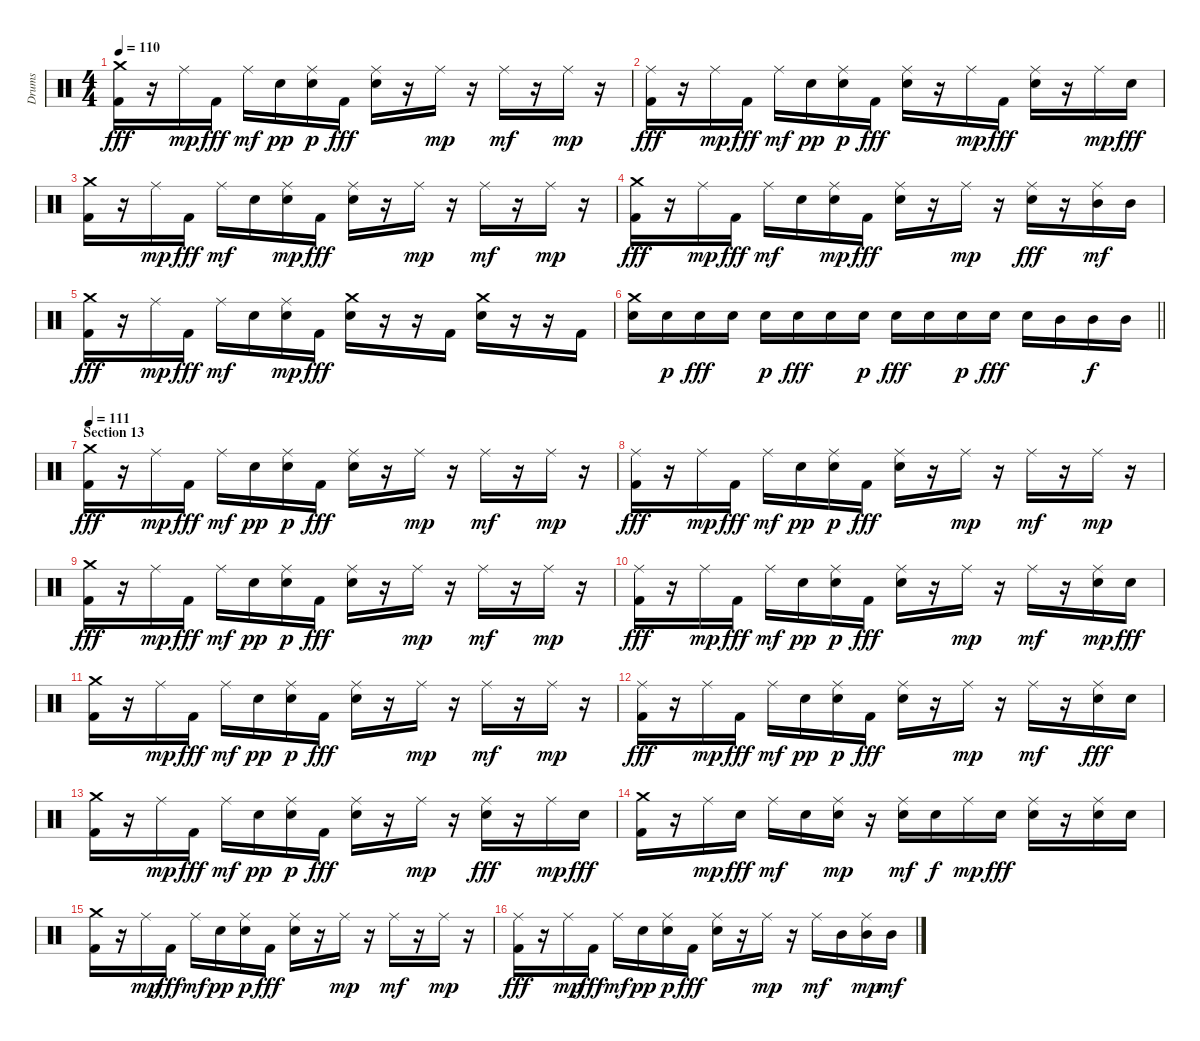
\track ("Drums" "Drums") {instrument percussion}
\staff {score}
\articulation defaults
\ts (4 4)
\tempo 110
\clef neutral
\ks c
("Crash medium (hit)" "Kick (hit) 2").16{dy fff} r.16 "Ride (middle)".16{dy mp} "Kick (hit) 2".16{dy fff} "Ride (middle)".16{dy mf} "Electric Snare (hit)".16{dy pp} ("Ride (middle)" "Electric Snare (hit)").16{dy p} "Kick (hit) 2".16{dy fff} ("Ride (middle)" "Electric Snare (hit)").16 r.16 "Ride (middle)".16{dy mp} r.16 "Ride (middle)".16{dy mf} r.16 "Ride (middle)".16{dy mp} r.16 |
("Ride (middle)" "Kick (hit) 2").16{dy fff} r.16 "Ride (middle)".16{dy mp} "Kick (hit) 2".16{dy fff} "Ride (middle)".16{dy mf} "Electric Snare (hit)".16{dy pp} ("Ride (middle)" "Electric Snare (hit)").16{dy p} "Kick (hit) 2".16{dy fff} ("Ride (middle)" "Electric Snare (hit)").16 r.16 "Ride (middle)".16{dy mp} "Kick (hit) 2".16{dy fff} ("Ride (middle)" "Electric Snare (hit)").16 r.16 "Ride (middle)".16{dy mp} "Electric Snare (hit)".16{dy fff} |
("Crash medium (hit)" "Kick (hit) 2").16 r.16 "Ride (middle)".16{dy mp} "Kick (hit) 2".16{dy fff} "Ride (middle)".16{dy mf} "Electric Snare (hit)".16 ("Ride (middle)" "Electric Snare (hit)").16{dy mp} "Kick (hit) 2".16{dy fff} ("Ride (middle)" "Electric Snare (hit)").16 r.16 "Ride (middle)".16{dy mp} r.16 "Ride (middle)".16{dy mf} r.16 "Ride (middle)".16{dy mp} r.16 |
("Crash medium (hit)" "Kick (hit) 2").16{dy fff} r.16 "Ride (middle)".16{dy mp} "Kick (hit) 2".16{dy fff} "Ride (middle)".16{dy mf} "Electric Snare (hit)".16 ("Ride (middle)" "Electric Snare (hit)").16{dy mp} "Kick (hit) 2".16{dy fff} ("Ride (middle)" "Electric Snare (hit)").16 r.16 "Ride (middle)".16{dy mp} r.16 ("Ride (middle)" "Electric Snare (hit)").16{dy fff} r.16 ("Ride (middle)" "Mid Tom (hit)").16{dy mf} "Mid Tom (hit)".16 |
("Crash medium (hit)" "Kick (hit) 2").16{dy fff} r.16 "Ride (middle)".16{dy mp} "Kick (hit) 2".16{dy fff} "Ride (middle)".16{dy mf} "Electric Snare (hit)".16 ("Ride (middle)" "Electric Snare (hit)").16{dy mp} "Kick (hit) 2".16{dy fff} ("Crash medium (hit)" "Electric Snare (hit)").16 r.16 r.16 "Kick (hit) 2".16 ("Crash medium (hit)" "Electric Snare (hit)").16 r.16 r.16 "Kick (hit) 2".16 |
\barLineRight lightlight
("Crash medium (hit)" "Electric Snare (hit)").16 "Electric Snare (hit)".16{dy p} "Electric Snare (hit)".16{dy fff} "Electric Snare (hit)".16 "Electric Snare (hit)".16{dy p} "Electric Snare (hit)".16{dy fff} "Electric Snare (hit)".16 "Electric Snare (hit)".16{dy p} "Electric Snare (hit)".16{dy fff} "Electric Snare (hit)".16 "Electric Snare (hit)".16{dy p} "Electric Snare (hit)".16{dy fff} "Electric Snare (hit)".16 "Mid Tom (hit)".16 "Mid Tom (hit)".16{dy f} "Mid Tom (hit)".16 |
\section ("" "Section 13")
\tempo 111
("Crash medium (hit)" "Kick (hit) 2").16{dy fff} r.16 "Ride (middle)".16{dy mp} "Kick (hit) 2".16{dy fff} "Ride (middle)".16{dy mf} "Electric Snare (hit)".16{dy pp} ("Ride (middle)" "Electric Snare (hit)").16{dy p} "Kick (hit) 2".16{dy fff} ("Ride (middle)" "Electric Snare (hit)").16 r.16 "Ride (middle)".16{dy mp} r.16 "Ride (middle)".16{dy mf} r.16 "Ride (middle)".16{dy mp} r.16 |
("Ride (middle)" "Kick (hit) 2").16{dy fff} r.16 "Ride (middle)".16{dy mp} "Kick (hit) 2".16{dy fff} "Ride (middle)".16{dy mf} "Electric Snare (hit)".16{dy pp} ("Ride (middle)" "Electric Snare (hit)").16{dy p} "Kick (hit) 2".16{dy fff} ("Ride (middle)" "Electric Snare (hit)").16 r.16 "Ride (middle)".16{dy mp} r.16 "Ride (middle)".16{dy mf} r.16 "Ride (middle)".16{dy mp} r.16 |
("Crash medium (hit)" "Kick (hit) 2").16{dy fff} r.16 "Ride (middle)".16{dy mp} "Kick (hit) 2".16{dy fff} "Ride (middle)".16{dy mf} "Electric Snare (hit)".16{dy pp} ("Ride (middle)" "Electric Snare (hit)").16{dy p} "Kick (hit) 2".16{dy fff} ("Ride (middle)" "Electric Snare (hit)").16 r.16 "Ride (middle)".16{dy mp} r.16 "Ride (middle)".16{dy mf} r.16 "Ride (middle)".16{dy mp} r.16 |
("Ride (middle)" "Kick (hit) 2").16{dy fff} r.16 "Ride (middle)".16{dy mp} "Kick (hit) 2".16{dy fff} "Ride (middle)".16{dy mf} "Electric Snare (hit)".16{dy pp} ("Ride (middle)" "Electric Snare (hit)").16{dy p} "Kick (hit) 2".16{dy fff} ("Ride (middle)" "Electric Snare (hit)").16 r.16 "Ride (middle)".16{dy mp} r.16 "Ride (middle)".16{dy mf} r.16 ("Ride (middle)" "Electric Snare (hit)").16{dy mp} "Electric Snare (hit)".16{dy fff} |
("Crash medium (hit)" "Kick (hit) 2").16 r.16 "Ride (middle)".16{dy mp} "Kick (hit) 2".16{dy fff} "Ride (middle)".16{dy mf} "Electric Snare (hit)".16{dy pp} ("Ride (middle)" "Electric Snare (hit)").16{dy p} "Kick (hit) 2".16{dy fff} ("Ride (middle)" "Electric Snare (hit)").16 r.16 "Ride (middle)".16{dy mp} r.16 "Ride (middle)".16{dy mf} r.16 "Ride (middle)".16{dy mp} r.16 |
("Ride (middle)" "Kick (hit) 2").16{dy fff} r.16 "Ride (middle)".16{dy mp} "Kick (hit) 2".16{dy fff} "Ride (middle)".16{dy mf} "Electric Snare (hit)".16{dy pp} ("Ride (middle)" "Electric Snare (hit)").16{dy p} "Kick (hit) 2".16{dy fff} ("Ride (middle)" "Electric Snare (hit)").16 r.16 "Ride (middle)".16{dy mp} r.16 "Ride (middle)".16{dy mf} r.16 ("Ride (middle)" "Electric Snare (hit)").16{dy fff} "Electric Snare (hit)".16 |
("Crash medium (hit)" "Kick (hit) 2").16 r.16 "Ride (middle)".16{dy mp} "Kick (hit) 2".16{dy fff} "Ride (middle)".16{dy mf} "Electric Snare (hit)".16{dy pp} ("Ride (middle)" "Electric Snare (hit)").16{dy p} "Kick (hit) 2".16{dy fff} ("Ride (middle)" "Electric Snare (hit)").16 r.16 "Ride (middle)".16{dy mp} r.16 ("Ride (middle)" "Electric Snare (hit)").16{dy fff} r.16 "Ride (middle)".16{dy mp} "Electric Snare (hit)".16{dy fff} |
("Crash medium (hit)" "Kick (hit) 2").16 r.16 "Ride (middle)".16{dy mp} "Electric Snare (hit)".16{dy fff} "Ride (middle)".16{dy mf} "Electric Snare (hit)".16 ("Ride (middle)" "Electric Snare (hit)").16{dy mp} r.16 ("Ride (middle)" "Electric Snare (hit)").16{dy mf} "Electric Snare (hit)".16{dy f} "Ride (middle)".16{dy mp} "Electric Snare (hit)".16{dy fff} ("Ride (middle)" "Electric Snare (hit)").16 r.16 ("Ride (middle)" "Electric Snare (hit)").16 "Electric Snare (hit)".16 |
("Crash medium (hit)" "Kick (hit) 2").16 r.16 "Ride (middle)".16{dy mp} "Kick (hit) 2".16{dy fff} "Ride (middle)".16{dy mf} "Electric Snare (hit)".16{dy pp} ("Ride (middle)" "Electric Snare (hit)").16{dy p} "Kick (hit) 2".16{dy fff} ("Ride (middle)" "Electric Snare (hit)").16 r.16 "Ride (middle)".16{dy mp} r.16 "Ride (middle)".16{dy mf} r.16 "Ride (middle)".16{dy mp} r.16 |
("Ride (middle)" "Kick (hit) 2").16{dy fff} r.16 "Ride (middle)".16{dy mp} "Kick (hit) 2".16{dy fff} "Ride (middle)".16{dy mf} "Electric Snare (hit)".16{dy pp} ("Ride (middle)" "Electric Snare (hit)").16{dy p} "Kick (hit) 2".16{dy fff} ("Ride (middle)" "Electric Snare (hit)").16 r.16 "Ride (middle)".16{dy mp} r.16 "Ride (middle)".16{dy mf} "Mid Tom (hit)".16 ("Ride (middle)" "Mid Tom (hit)").16{dy mp} "Mid Tom (hit)".16{dy mf}
